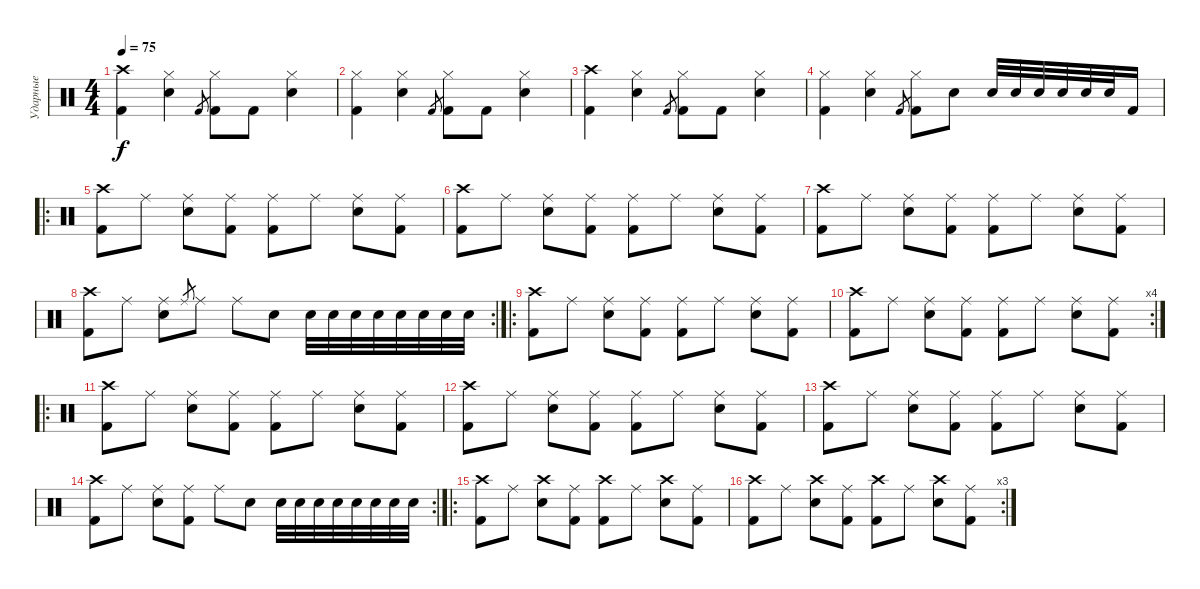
\track ("Ударные" "Ударные") {instrument percussion}
\staff {score}
\articulation defaults
\ts (4 4)
\tempo 75
\clef neutral
\ks c
("Crash high (hit)" "Kick (hit) 2").4{dy f} ("Hi-Hat (closed)" "Electric Snare (hit)").4 "Kick (hit) 2".8{gr} ("Hi-Hat (closed)" "Kick (hit) 2").8 "Kick (hit) 2".8 ("Hi-Hat (closed)" "Electric Snare (hit)").4 |
("Hi-Hat (closed)" "Kick (hit) 2").4 ("Hi-Hat (closed)" "Electric Snare (hit)").4 "Kick (hit) 2".8{gr} ("Hi-Hat (closed)" "Kick (hit) 2").8 "Kick (hit) 2".8 ("Hi-Hat (closed)" "Electric Snare (hit)").4 |
("Crash high (hit)" "Kick (hit) 2").4 ("Hi-Hat (closed)" "Electric Snare (hit)").4 "Kick (hit) 2".8{gr} ("Hi-Hat (closed)" "Kick (hit) 2").8 "Kick (hit) 2".8 ("Hi-Hat (closed)" "Electric Snare (hit)").4 |
("Hi-Hat (closed)" "Kick (hit) 2").4 ("Hi-Hat (closed)" "Electric Snare (hit)").4 "Kick (hit) 2".8{gr} ("Hi-Hat (closed)" "Kick (hit) 2").8 "Electric Snare (hit)".8 "Electric Snare (hit)".32 "Electric Snare (hit)".32 "Electric Snare (hit)".32 "Electric Snare (hit)".32 "Electric Snare (hit)".32 "Electric Snare (hit)".32 "Kick (hit) 2".16 |
\ro
("Crash high (hit)" "Kick (hit) 2").8 "Ride (middle)".8 ("Ride (middle)" "Electric Snare (hit)").8 ("Ride (middle)" "Kick (hit) 2").8 ("Ride (middle)" "Kick (hit) 2").8 "Ride (middle)".8 ("Ride (middle)" "Electric Snare (hit)").8 ("Ride (middle)" "Kick (hit) 2").8 |
("Crash high (hit)" "Kick (hit) 2").8 "Ride (middle)".8 ("Ride (middle)" "Electric Snare (hit)").8 ("Ride (middle)" "Kick (hit) 2").8 ("Ride (middle)" "Kick (hit) 2").8 "Ride (middle)".8 ("Ride (middle)" "Electric Snare (hit)").8 ("Ride (middle)" "Kick (hit) 2").8 |
("Crash high (hit)" "Kick (hit) 2").8 "Ride (middle)".8 ("Ride (middle)" "Electric Snare (hit)").8 ("Ride (middle)" "Kick (hit) 2").8 ("Ride (middle)" "Kick (hit) 2").8 "Ride (middle)".8 ("Ride (middle)" "Electric Snare (hit)").8 ("Ride (middle)" "Kick (hit) 2").8 |
\rc 2
("Crash high (hit)" "Kick (hit) 2").8 "Ride (middle)".8 ("Ride (middle)" "Electric Snare (hit)").8 "Ride (middle)".8{gr} "Ride (middle)".8 "Ride (middle)".8 "Electric Snare (hit)".8 "Electric Snare (hit)".32 "Electric Snare (hit)".32 "Electric Snare (hit)".32 "Electric Snare (hit)".32 "Electric Snare (hit)".32 "Electric Snare (hit)".32 "Electric Snare (hit)".32 "Electric Snare (hit)".32 |
\ro
("Crash high (hit)" "Kick (hit) 2").8 "Ride (middle)".8 ("Ride (middle)" "Electric Snare (hit)").8 ("Ride (middle)" "Kick (hit) 2").8 ("Ride (middle)" "Kick (hit) 2").8 "Ride (middle)".8 ("Ride (middle)" "Electric Snare (hit)").8 ("Ride (middle)" "Kick (hit) 2").8 |
\rc 4
("Crash high (hit)" "Kick (hit) 2").8 "Ride (middle)".8 ("Ride (middle)" "Electric Snare (hit)").8 ("Ride (middle)" "Kick (hit) 2").8 ("Ride (middle)" "Kick (hit) 2").8 "Ride (middle)".8 ("Ride (middle)" "Electric Snare (hit)").8 ("Ride (middle)" "Kick (hit) 2").8 |
\ro
("Crash high (hit)" "Kick (hit) 2").8 "Ride (middle)".8 ("Ride (middle)" "Electric Snare (hit)").8 ("Ride (middle)" "Kick (hit) 2").8 ("Ride (middle)" "Kick (hit) 2").8 "Ride (middle)".8 ("Ride (middle)" "Electric Snare (hit)").8 ("Ride (middle)" "Kick (hit) 2").8 |
("Crash high (hit)" "Kick (hit) 2").8 "Ride (middle)".8 ("Ride (middle)" "Electric Snare (hit)").8 ("Ride (middle)" "Kick (hit) 2").8 ("Ride (middle)" "Kick (hit) 2").8 "Ride (middle)".8 ("Ride (middle)" "Electric Snare (hit)").8 ("Ride (middle)" "Kick (hit) 2").8 |
("Crash high (hit)" "Kick (hit) 2").8 "Ride (middle)".8 ("Ride (middle)" "Electric Snare (hit)").8 ("Ride (middle)" "Kick (hit) 2").8 ("Ride (middle)" "Kick (hit) 2").8 "Ride (middle)".8 ("Ride (middle)" "Electric Snare (hit)").8 ("Ride (middle)" "Kick (hit) 2").8 |
\rc 2
("Crash high (hit)" "Kick (hit) 2").8 "Ride (middle)".8 ("Ride (middle)" "Electric Snare (hit)").8 ("Ride (middle)" "Kick (hit) 2").8 "Ride (middle)".8 "Electric Snare (hit)".8 "Electric Snare (hit)".32 "Electric Snare (hit)".32 "Electric Snare (hit)".32 "Electric Snare (hit)".32 "Electric Snare (hit)".32 "Electric Snare (hit)".32 "Electric Snare (hit)".32 "Electric Snare (hit)".32 |
\ro
("Crash high (hit)" "Kick (hit) 2").8 "Ride (middle)".8 ("Crash high (hit)" "Electric Snare (hit)").8 ("Ride (middle)" "Kick (hit) 2").8 ("Crash high (hit)" "Kick (hit) 2").8 "Ride (middle)".8 ("Crash high (hit)" "Electric Snare (hit)").8 ("Ride (middle)" "Kick (hit) 2").8 |
\rc 3
("Crash high (hit)" "Kick (hit) 2").8 "Ride (middle)".8 ("Crash high (hit)" "Electric Snare (hit)").8 ("Ride (middle)" "Kick (hit) 2").8 ("Crash high (hit)" "Kick (hit) 2").8 "Ride (middle)".8 ("Crash high (hit)" "Electric Snare (hit)").8 ("Ride (middle)" "Kick (hit) 2").8
